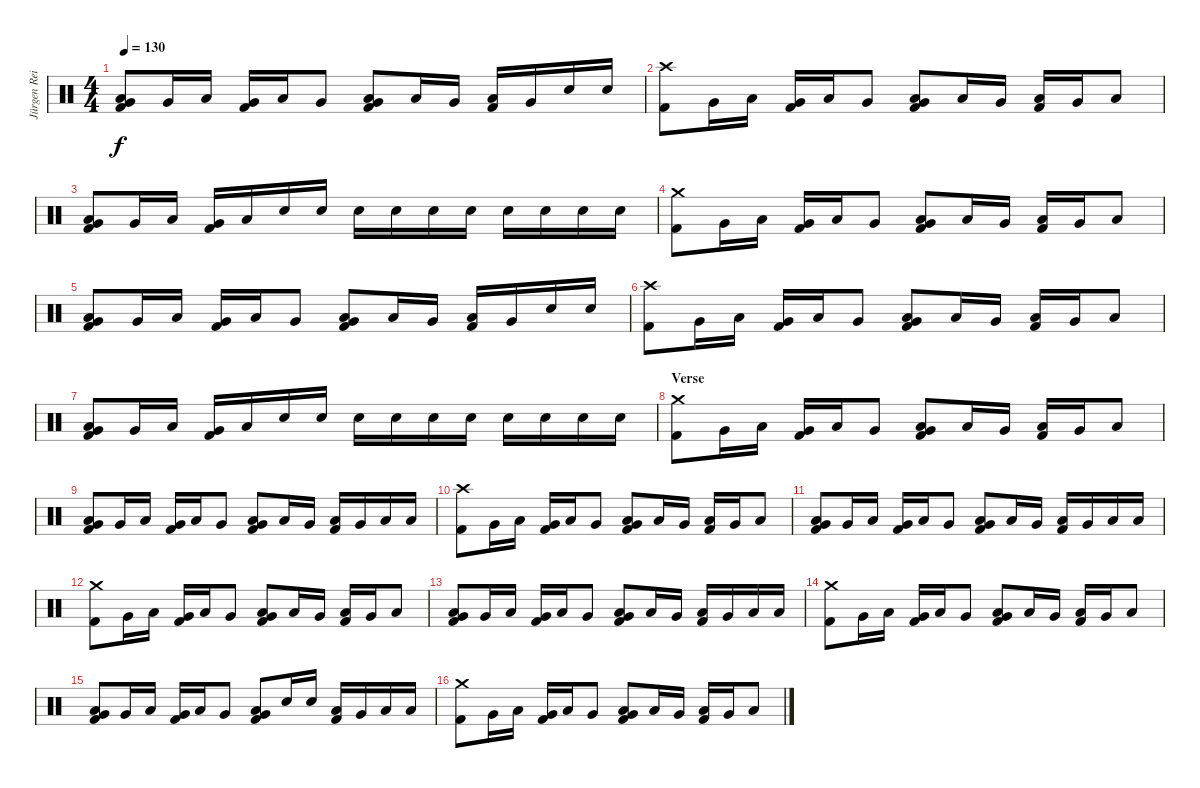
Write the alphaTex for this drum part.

\track ("Jürgen Reil" "Jürgen Rei") {instrument percussion}
\staff {score}
\articulation defaults
\ts (4 4)
\tempo 130
\clef neutral
\ks c
("Low Tom (hit)" "Very Low Tom (hit)" "Kick (hit) 2").8{dy f} "Very Low Tom (hit)".16 "Low Tom (hit)".16 ("Very Low Tom (hit)" "Kick (hit) 2").16 "Low Tom (hit)".16 "Very Low Tom (hit)".8 ("Low Tom (hit)" "Very Low Tom (hit)" "Kick (hit) 2").8 "Low Tom (hit)".16 "Very Low Tom (hit)".16 ("Low Tom (hit)" "Kick (hit) 2").16 "Very Low Tom (hit)".16 "Electric Snare (hit)".16 "Electric Snare (hit)".16 |
("Crash high (hit)" "Kick (hit) 2").8 "Very Low Tom (hit)".16 "Low Tom (hit)".16 ("Very Low Tom (hit)" "Kick (hit) 2").16 "Low Tom (hit)".16 "Very Low Tom (hit)".8 ("Low Tom (hit)" "Very Low Tom (hit)" "Kick (hit) 2").8 "Low Tom (hit)".16 "Very Low Tom (hit)".16 ("Low Tom (hit)" "Kick (hit) 2").16 "Very Low Tom (hit)".16 "Low Tom (hit)".8 |
("Low Tom (hit)" "Very Low Tom (hit)" "Kick (hit) 2").8 "Very Low Tom (hit)".16 "Low Tom (hit)".16 ("Very Low Tom (hit)" "Kick (hit) 2").16 "Low Tom (hit)".16 "Electric Snare (hit)".16 "Electric Snare (hit)".16 "Electric Snare (hit)".16 "Electric Snare (hit)".16 "Electric Snare (hit)".16 "Electric Snare (hit)".16 "Electric Snare (hit)".16 "Electric Snare (hit)".16 "Electric Snare (hit)".16 "Electric Snare (hit)".16 |
("Crash medium (hit)" "Kick (hit) 2").8 "Very Low Tom (hit)".16 "Low Tom (hit)".16 ("Very Low Tom (hit)" "Kick (hit) 2").16 "Low Tom (hit)".16 "Very Low Tom (hit)".8 ("Low Tom (hit)" "Very Low Tom (hit)" "Kick (hit) 2").8 "Low Tom (hit)".16 "Very Low Tom (hit)".16 ("Low Tom (hit)" "Kick (hit) 2").16 "Very Low Tom (hit)".16 "Low Tom (hit)".8 |
("Low Tom (hit)" "Very Low Tom (hit)" "Kick (hit) 2").8 "Very Low Tom (hit)".16 "Low Tom (hit)".16 ("Very Low Tom (hit)" "Kick (hit) 2").16 "Low Tom (hit)".16 "Very Low Tom (hit)".8 ("Low Tom (hit)" "Very Low Tom (hit)" "Kick (hit) 2").8 "Low Tom (hit)".16 "Very Low Tom (hit)".16 ("Low Tom (hit)" "Kick (hit) 2").16 "Very Low Tom (hit)".16 "Electric Snare (hit)".16 "Electric Snare (hit)".16 |
("Crash high (hit)" "Kick (hit) 2").8 "Very Low Tom (hit)".16 "Low Tom (hit)".16 ("Very Low Tom (hit)" "Kick (hit) 2").16 "Low Tom (hit)".16 "Very Low Tom (hit)".8 ("Low Tom (hit)" "Very Low Tom (hit)" "Kick (hit) 2").8 "Low Tom (hit)".16 "Very Low Tom (hit)".16 ("Low Tom (hit)" "Kick (hit) 2").16 "Very Low Tom (hit)".16 "Low Tom (hit)".8 |
("Low Tom (hit)" "Very Low Tom (hit)" "Kick (hit) 2").8 "Very Low Tom (hit)".16 "Low Tom (hit)".16 ("Very Low Tom (hit)" "Kick (hit) 2").16 "Low Tom (hit)".16 "Electric Snare (hit)".16 "Electric Snare (hit)".16 "Electric Snare (hit)".16 "Electric Snare (hit)".16 "Electric Snare (hit)".16 "Electric Snare (hit)".16 "Electric Snare (hit)".16 "Electric Snare (hit)".16 "Electric Snare (hit)".16 "Electric Snare (hit)".16 |
\section ("" "Verse")
("Crash medium (hit)" "Kick (hit) 2").8 "Very Low Tom (hit)".16 "Low Tom (hit)".16 ("Very Low Tom (hit)" "Kick (hit) 2").16 "Low Tom (hit)".16 "Very Low Tom (hit)".8 ("Low Tom (hit)" "Very Low Tom (hit)" "Kick (hit) 2").8 "Low Tom (hit)".16 "Very Low Tom (hit)".16 ("Low Tom (hit)" "Kick (hit) 2").16 "Very Low Tom (hit)".16 "Low Tom (hit)".8 |
("Low Tom (hit)" "Very Low Tom (hit)" "Kick (hit) 2").8 "Very Low Tom (hit)".16 "Low Tom (hit)".16 ("Very Low Tom (hit)" "Kick (hit) 2").16 "Low Tom (hit)".16 "Very Low Tom (hit)".8 ("Low Tom (hit)" "Very Low Tom (hit)" "Kick (hit) 2").8 "Low Tom (hit)".16 "Very Low Tom (hit)".16 ("Low Tom (hit)" "Kick (hit) 2").16 "Very Low Tom (hit)".16 "Low Tom (hit)".16 "Low Tom (hit)".16 |
("Crash high (hit)" "Kick (hit) 2").8 "Very Low Tom (hit)".16 "Low Tom (hit)".16 ("Very Low Tom (hit)" "Kick (hit) 2").16 "Low Tom (hit)".16 "Very Low Tom (hit)".8 ("Low Tom (hit)" "Very Low Tom (hit)" "Kick (hit) 2").8 "Low Tom (hit)".16 "Very Low Tom (hit)".16 ("Low Tom (hit)" "Kick (hit) 2").16 "Very Low Tom (hit)".16 "Low Tom (hit)".8 |
("Low Tom (hit)" "Very Low Tom (hit)" "Kick (hit) 2").8 "Very Low Tom (hit)".16 "Low Tom (hit)".16 ("Very Low Tom (hit)" "Kick (hit) 2").16 "Low Tom (hit)".16 "Very Low Tom (hit)".8 ("Low Tom (hit)" "Very Low Tom (hit)" "Kick (hit) 2").8 "Low Tom (hit)".16 "Very Low Tom (hit)".16 ("Low Tom (hit)" "Kick (hit) 2").16 "Very Low Tom (hit)".16 "Low Floor Tom (hit)".16 "Low Floor Tom (hit)".16 |
("Crash medium (hit)" "Kick (hit) 2").8 "Very Low Tom (hit)".16 "Low Tom (hit)".16 ("Very Low Tom (hit)" "Kick (hit) 2").16 "Low Tom (hit)".16 "Very Low Tom (hit)".8 ("Low Tom (hit)" "Very Low Tom (hit)" "Kick (hit) 2").8 "Low Tom (hit)".16 "Very Low Tom (hit)".16 ("Low Tom (hit)" "Kick (hit) 2").16 "Very Low Tom (hit)".16 "Low Tom (hit)".8 |
("Low Tom (hit)" "Very Low Tom (hit)" "Kick (hit) 2").8 "Very Low Tom (hit)".16 "Low Tom (hit)".16 ("Very Low Tom (hit)" "Kick (hit) 2").16 "Low Tom (hit)".16 "Very Low Tom (hit)".8 ("Low Tom (hit)" "Very Low Tom (hit)" "Kick (hit) 2").8 "Low Tom (hit)".16 "Very Low Tom (hit)".16 ("Low Tom (hit)" "Kick (hit) 2").16 "Very Low Tom (hit)".16 "Low Tom (hit)".16 "Low Tom (hit)".16 |
("Crash medium (hit)" "Kick (hit) 2").8 "Very Low Tom (hit)".16 "Low Tom (hit)".16 ("Very Low Tom (hit)" "Kick (hit) 2").16 "Low Tom (hit)".16 "Very Low Tom (hit)".8 ("Low Tom (hit)" "Very Low Tom (hit)" "Kick (hit) 2").8 "Low Tom (hit)".16 "Very Low Tom (hit)".16 ("Low Tom (hit)" "Kick (hit) 2").16 "Very Low Tom (hit)".16 "Low Tom (hit)".8 |
("Low Tom (hit)" "Very Low Tom (hit)" "Kick (hit) 2").8 "Very Low Tom (hit)".16 "Low Tom (hit)".16 ("Very Low Tom (hit)" "Kick (hit) 2").16 "Low Tom (hit)".16 "Very Low Tom (hit)".8 ("Low Tom (hit)" "Very Low Tom (hit)" "Kick (hit) 2").8 "Electric Snare (hit)".16 "Electric Snare (hit)".16 ("Low Tom (hit)" "Kick (hit) 2").16 "Very Low Tom (hit)".16 "Low Floor Tom (hit)".16 "Low Floor Tom (hit)".16 |
("Crash medium (hit)" "Kick (hit) 2").8 "Very Low Tom (hit)".16 "Low Tom (hit)".16 ("Very Low Tom (hit)" "Kick (hit) 2").16 "Low Tom (hit)".16 "Very Low Tom (hit)".8 ("Low Tom (hit)" "Very Low Tom (hit)" "Kick (hit) 2").8 "Low Tom (hit)".16 "Very Low Tom (hit)".16 ("Low Tom (hit)" "Kick (hit) 2").16 "Very Low Tom (hit)".16 "Low Tom (hit)".8
